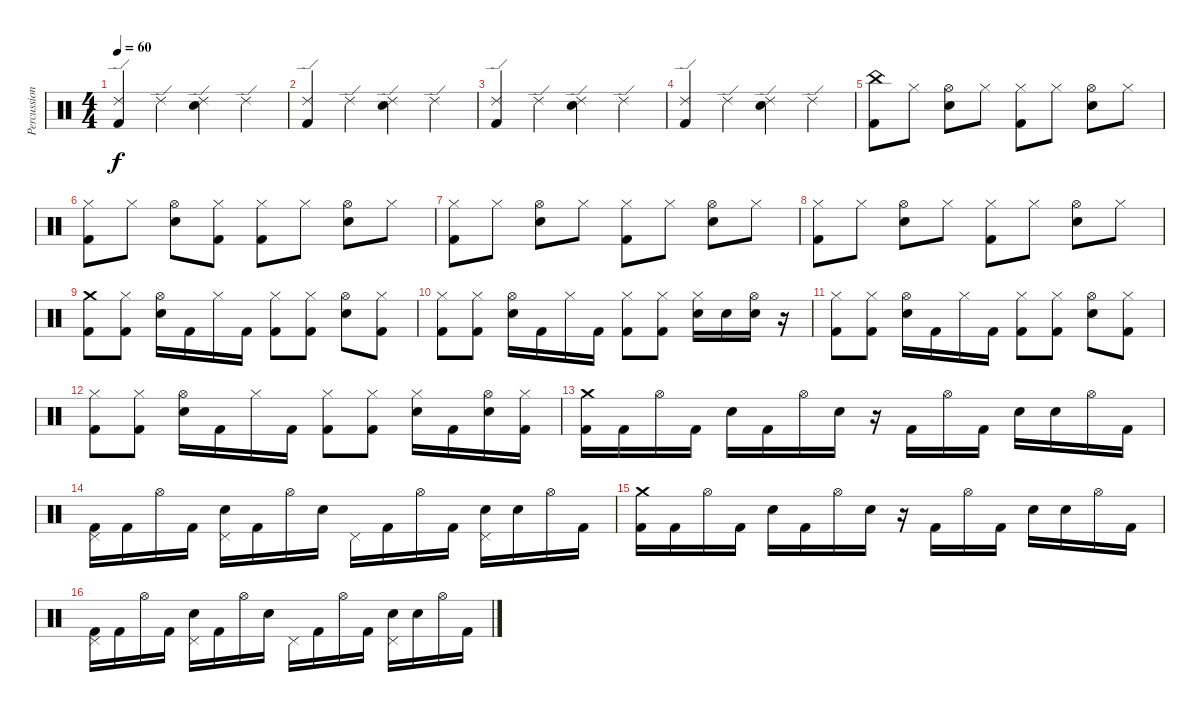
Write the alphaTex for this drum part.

\track ("Percussions" "Percussion") {instrument percussion}
\staff {score}
\articulation defaults
\ts (4 4)
\tempo 60
\clef neutral
\ks c
("Ride (edge) 2" "Kick (hit) 2").4{dy f} "Ride (edge) 2".4 ("Ride (edge) 2" "Electric Snare (hit)").4 "Ride (edge) 2".4 |
("Ride (edge) 2" "Kick (hit) 2").4 "Ride (edge) 2".4 ("Ride (edge) 2" "Electric Snare (hit)").4 "Ride (edge) 2".4 |
("Ride (edge) 2" "Kick (hit) 2").4 "Ride (edge) 2".4 ("Ride (edge) 2" "Electric Snare (hit)").4 "Ride (edge) 2".4 |
("Ride (edge) 2" "Kick (hit) 2").4 "Ride (edge) 2".4 ("Ride (edge) 2" "Electric Snare (hit)").4 "Ride (edge) 2".4 |
("China (hit)" "Kick (hit) 2").8 "Hi-Hat (closed)".8 ("Hi-Hat (open)" "Electric Snare (hit)").8 "Hi-Hat (closed)".8 ("Hi-Hat (closed)" "Kick (hit) 2").8 "Hi-Hat (closed)".8 ("Hi-Hat (open)" "Electric Snare (hit)").8 "Hi-Hat (closed)".8 |
("Hi-Hat (closed)" "Kick (hit) 2").8 "Hi-Hat (closed)".8 ("Hi-Hat (open)" "Electric Snare (hit)").8 ("Hi-Hat (closed)" "Kick (hit) 2").8 ("Hi-Hat (closed)" "Kick (hit) 2").8 "Hi-Hat (closed)".8 ("Hi-Hat (open)" "Electric Snare (hit)").8 "Hi-Hat (closed)".8 |
("Hi-Hat (closed)" "Kick (hit) 2").8 "Hi-Hat (closed)".8 ("Hi-Hat (open)" "Electric Snare (hit)").8 "Hi-Hat (closed)".8 ("Hi-Hat (closed)" "Kick (hit) 2").8 "Hi-Hat (closed)".8 ("Hi-Hat (open)" "Electric Snare (hit)").8 "Hi-Hat (closed)".8 |
("Hi-Hat (closed)" "Kick (hit) 2").8 "Hi-Hat (closed)".8 ("Hi-Hat (open)" "Electric Snare (hit)").8 "Hi-Hat (closed)".8 ("Hi-Hat (closed)" "Kick (hit) 2").8 "Hi-Hat (closed)".8 ("Hi-Hat (open)" "Electric Snare (hit)").8 "Hi-Hat (closed)".8 |
("Crash medium (hit)" "Kick (hit) 2").8 ("Hi-Hat (closed)" "Kick (hit) 2").8 ("Hi-Hat (open)" "Electric Snare (hit)").16 "Kick (hit) 2".16 "Hi-Hat (closed)".16 "Kick (hit) 2".16 ("Hi-Hat (closed)" "Kick (hit) 2").8 ("Hi-Hat (closed)" "Kick (hit) 2").8 ("Hi-Hat (open)" "Electric Snare (hit)").8 ("Hi-Hat (closed)" "Kick (hit) 2").8 |
("Hi-Hat (closed)" "Kick (hit) 2").8 ("Hi-Hat (closed)" "Kick (hit) 2").8 ("Hi-Hat (open)" "Electric Snare (hit)").16 "Kick (hit) 2".16 "Hi-Hat (closed)".16 "Kick (hit) 2".16 ("Hi-Hat (closed)" "Kick (hit) 2").8 ("Hi-Hat (closed)" "Kick (hit) 2").8 ("Hi-Hat (closed)" "Electric Snare (hit)").16 "Electric Snare (hit)".16 ("Hi-Hat (open)" "Electric Snare (hit)").16 r.16 |
("Hi-Hat (closed)" "Kick (hit) 2").8 ("Hi-Hat (closed)" "Kick (hit) 2").8 ("Hi-Hat (open)" "Electric Snare (hit)").16 "Kick (hit) 2".16 "Hi-Hat (closed)".16 "Kick (hit) 2".16 ("Hi-Hat (closed)" "Kick (hit) 2").8 ("Hi-Hat (closed)" "Kick (hit) 2").8 ("Hi-Hat (open)" "Electric Snare (hit)").8 ("Hi-Hat (closed)" "Kick (hit) 2").8 |
("Hi-Hat (closed)" "Kick (hit) 2").8 ("Hi-Hat (closed)" "Kick (hit) 2").8 ("Hi-Hat (open)" "Electric Snare (hit)").16 "Kick (hit) 2".16 "Hi-Hat (closed)".16 "Kick (hit) 2".16 ("Hi-Hat (closed)" "Kick (hit) 2").8 ("Hi-Hat (closed)" "Kick (hit) 2").8 ("Hi-Hat (closed)" "Electric Snare (hit)").16 "Kick (hit) 2".16 ("Hi-Hat (open)" "Electric Snare (hit)").16 ("Hi-Hat (closed)" "Kick (hit) 2").16 |
("Crash medium (hit)" "Kick (hit) 2").16 "Kick (hit) 2".16 "Hi-Hat (open)".16 "Kick (hit) 2".16 "Electric Snare (hit)".16 "Kick (hit) 2".16 "Hi-Hat (open)".16 "Electric Snare (hit)".16 r.16 "Kick (hit) 2".16 "Hi-Hat (open)".16 "Kick (hit) 2".16 "Electric Snare (hit)".16 "Electric Snare (hit)".16 "Hi-Hat (open)".16 "Kick (hit) 2".16 |
("Pedal Hi-Hat (hit)" "Kick (hit) 2").16 "Kick (hit) 2".16 "Hi-Hat (open)".16 "Kick (hit) 2".16 ("Pedal Hi-Hat (hit)" "Electric Snare (hit)").16 "Kick (hit) 2".16 "Hi-Hat (open)".16 "Electric Snare (hit)".16 "Pedal Hi-Hat (hit)".16 "Kick (hit) 2".16 "Hi-Hat (open)".16 "Kick (hit) 2".16 ("Pedal Hi-Hat (hit)" "Electric Snare (hit)").16 "Electric Snare (hit)".16 "Hi-Hat (open)".16 "Kick (hit) 2".16 |
("Crash medium (hit)" "Kick (hit) 2").16 "Kick (hit) 2".16 "Hi-Hat (open)".16 "Kick (hit) 2".16 "Electric Snare (hit)".16 "Kick (hit) 2".16 "Hi-Hat (open)".16 "Electric Snare (hit)".16 r.16 "Kick (hit) 2".16 "Hi-Hat (open)".16 "Kick (hit) 2".16 "Electric Snare (hit)".16 "Electric Snare (hit)".16 "Hi-Hat (open)".16 "Kick (hit) 2".16 |
("Pedal Hi-Hat (hit)" "Kick (hit) 2").16 "Kick (hit) 2".16 "Hi-Hat (open)".16 "Kick (hit) 2".16 ("Pedal Hi-Hat (hit)" "Electric Snare (hit)").16 "Kick (hit) 2".16 "Hi-Hat (open)".16 "Electric Snare (hit)".16 "Pedal Hi-Hat (hit)".16 "Kick (hit) 2".16 "Hi-Hat (open)".16 "Kick (hit) 2".16 ("Pedal Hi-Hat (hit)" "Electric Snare (hit)").16 "Electric Snare (hit)".16 "Hi-Hat (open)".16 "Kick (hit) 2".16
